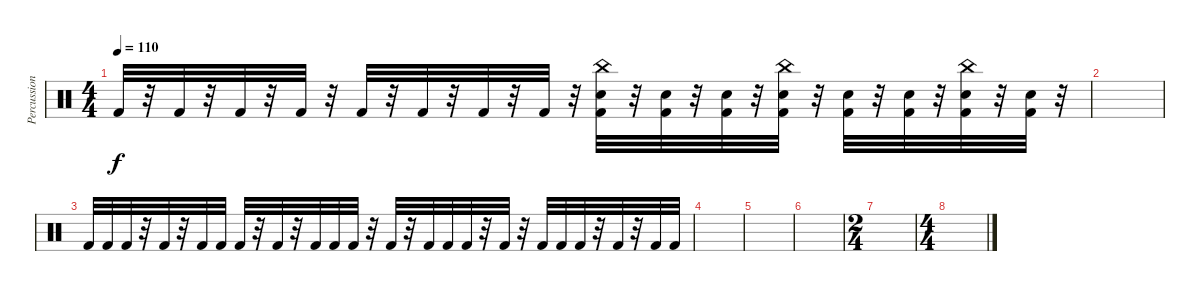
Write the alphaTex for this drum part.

\track ("Percussion" "Percussion") {instrument percussion}
\staff {score}
\articulation defaults
\ts (4 4)
\tempo 110
\clef neutral
\ks c "Kick (hit) 2".32{dy f}
r.32 "Kick (hit) 2".32 r.32 "Kick (hit) 2".32 r.32 "Kick (hit) 2".32 r.32 "Kick (hit) 2".32 r.32 "Kick (hit) 2".32 r.32 "Kick (hit) 2".32 r.32 "Kick (hit) 2".32 r.32 ("Kick (hit) 2" "Snare (hit) 2" "China (hit)").32 r.32 ("Kick (hit) 2" "Snare (hit) 2").32 r.32 ("Kick (hit) 2" "Snare (hit) 2").32 r.32 ("Kick (hit) 2" "Snare (hit) 2" "China (hit)").32 r.32 ("Kick (hit) 2" "Snare (hit) 2").32 r.32 ("Kick (hit) 2" "Snare (hit) 2").32 r.32 ("Kick (hit) 2" "Snare (hit) 2" "China (hit)").32 r.32 ("Kick (hit) 2" "Snare (hit) 2").32 r.32 |
|
"Kick (hit) 2".32 "Kick (hit) 2".32 "Kick (hit) 2".32 r.32 "Kick (hit) 2".32 r.32 "Kick (hit) 2".32 "Kick (hit) 2".32 "Kick (hit) 2".32 r.32 "Kick (hit) 2".32 r.32 "Kick (hit) 2".32 "Kick (hit) 2".32 "Kick (hit) 2".32 r.32 "Kick (hit) 2".32 r.32 "Kick (hit) 2".32 "Kick (hit) 2".32 "Kick (hit) 2".32 r.32 "Kick (hit) 2".32 r.32 "Kick (hit) 2".32 "Kick (hit) 2".32 "Kick (hit) 2".32 r.32 "Kick (hit) 2".32 r.32 "Kick (hit) 2".32 "Kick (hit) 2".32 |
|
|
|
\ts (2 4)
|
\ts (4 4)
